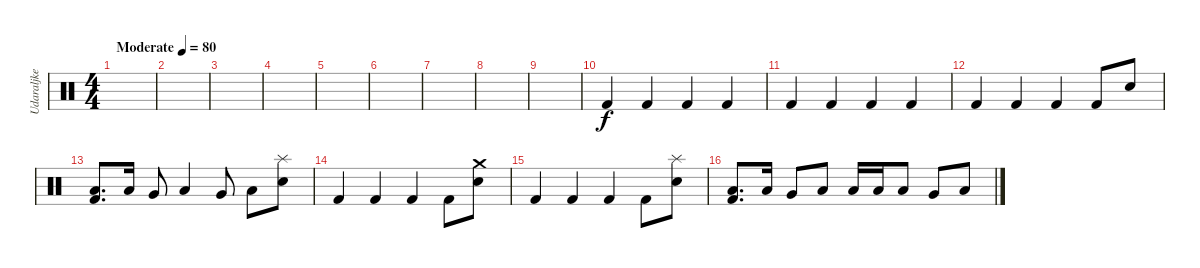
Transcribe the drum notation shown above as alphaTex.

\track ("Udaraljke" "Udaraljke") {instrument percussion}
\staff {score}
\articulation defaults
\ts (4 4)
\tempo (80 "Moderate")
\clef neutral
\ks c
|
|
|
|
|
|
|
|
|
"Kick (hit) 2".4 "Kick (hit) 2".4 "Kick (hit) 2".4 "Kick (hit) 2".4 |
"Kick (hit) 2".4 "Kick (hit) 2".4 "Kick (hit) 2".4 "Kick (hit) 2".4 |
"Kick (hit) 2".4 "Kick (hit) 2".4 "Kick (hit) 2".4 "Kick (hit) 2".8 "Snare (hit) 2".8 |
("Low Floor Tom (hit)" "Kick (hit) 2").8{d} "Low Floor Tom (hit)".16 "Very Low Tom (hit)".8 "Low Tom (hit)".4 "Very Low Tom (hit)".8 "Low Floor Tom (hit)".8 ("Snare (hit) 2" "Splash (hit)").8 |
"Kick (hit) 2".4 "Kick (hit) 2".4 "Kick (hit) 2".4 "Kick (hit) 2".8 ("Snare (hit) 2" "Crash medium (hit)").8 |
"Kick (hit) 2".4 "Kick (hit) 2".4 "Kick (hit) 2".4 "Kick (hit) 2".8 ("Snare (hit) 2" "Splash (hit)").8 |
("Low Floor Tom (hit)" "Kick (hit) 2").8{d} "Low Floor Tom (hit)".16 "Very Low Tom (hit)".8 "Low Tom (hit)".8 "Low Floor Tom (hit)".16 "Low Floor Tom (hit)".16 "Low Floor Tom (hit)".8 "Very Low Tom (hit)".8 "Low Tom (hit)".8
